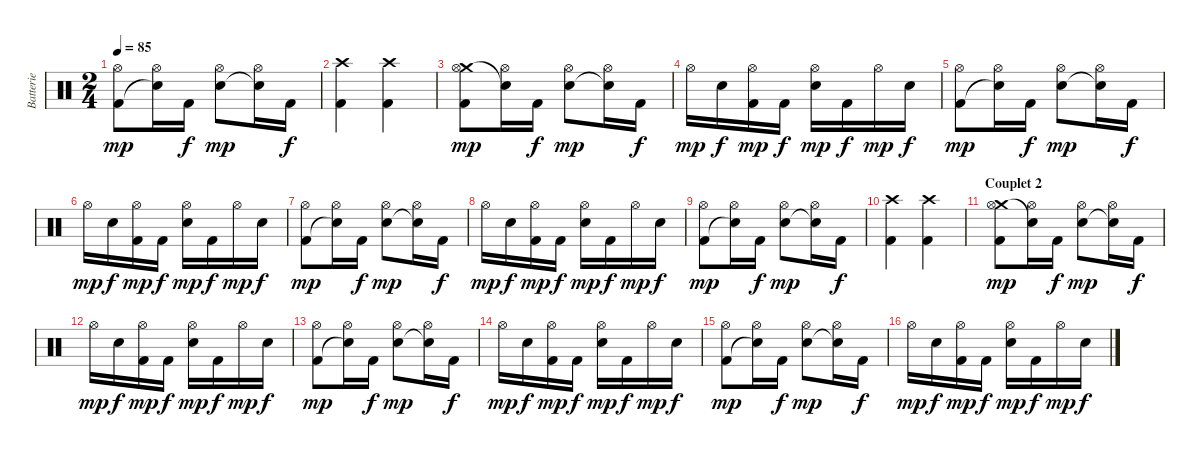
\track ("Batterie" "Batterie") {instrument percussion}
\staff {score}
\articulation defaults
\ts (2 4)
\tempo 85
\clef neutral
\ks c
("Hi-Hat (open)" "Kick (hit) 2").8{dy mp} ("Hi-Hat (open)" "Snare (hit)"{t}).16 "Kick (hit) 2".16{dy f} ("Electric Snare (hit)" "Hi-Hat (open)").8{dy mp} ("Snare (hit)"{t} "Hi-Hat (open)").16 "Kick (hit) 2".16{dy f} |
("Crash high (hit)" "Kick (hit) 2").4 ("Crash high (hit)" "Kick (hit) 2").4 |
("Crash medium (hit)" "Hi-Hat (open)" "Kick (hit) 2").8{dy mp} ("Hi-Hat (open)" "Snare (hit)"{t}).16 "Kick (hit) 2".16{dy f} ("Electric Snare (hit)" "Hi-Hat (open)").8{dy mp} ("Snare (hit)"{t} "Hi-Hat (open)").16 "Kick (hit) 2".16{dy f} |
"Hi-Hat (open)".16{dy mp} "Electric Snare (hit)".16{dy f} ("Hi-Hat (open)" "Kick (hit) 2").16{dy mp} "Kick (hit) 2".16{dy f} ("Electric Snare (hit)" "Hi-Hat (open)").16{dy mp} "Kick (hit) 2".16{dy f} "Hi-Hat (open)".16{dy mp} "Electric Snare (hit)".16{dy f} |
("Hi-Hat (open)" "Kick (hit) 2").8{dy mp} ("Hi-Hat (open)" "Snare (hit)"{t}).16 "Kick (hit) 2".16{dy f} ("Electric Snare (hit)" "Hi-Hat (open)").8{dy mp} ("Snare (hit)"{t} "Hi-Hat (open)").16 "Kick (hit) 2".16{dy f} |
"Hi-Hat (open)".16{dy mp} "Electric Snare (hit)".16{dy f} ("Hi-Hat (open)" "Kick (hit) 2").16{dy mp} "Kick (hit) 2".16{dy f} ("Electric Snare (hit)" "Hi-Hat (open)").16{dy mp} "Kick (hit) 2".16{dy f} "Hi-Hat (open)".16{dy mp} "Electric Snare (hit)".16{dy f} |
("Hi-Hat (open)" "Kick (hit) 2").8{dy mp} ("Hi-Hat (open)" "Snare (hit)"{t}).16 "Kick (hit) 2".16{dy f} ("Electric Snare (hit)" "Hi-Hat (open)").8{dy mp} ("Snare (hit)"{t} "Hi-Hat (open)").16 "Kick (hit) 2".16{dy f} |
"Hi-Hat (open)".16{dy mp} "Electric Snare (hit)".16{dy f} ("Hi-Hat (open)" "Kick (hit) 2").16{dy mp} "Kick (hit) 2".16{dy f} ("Electric Snare (hit)" "Hi-Hat (open)").16{dy mp} "Kick (hit) 2".16{dy f} "Hi-Hat (open)".16{dy mp} "Electric Snare (hit)".16{dy f} |
("Hi-Hat (open)" "Kick (hit) 2").8{dy mp} ("Hi-Hat (open)" "Snare (hit)"{t}).16 "Kick (hit) 2".16{dy f} ("Electric Snare (hit)" "Hi-Hat (open)").8{dy mp} ("Snare (hit)"{t} "Hi-Hat (open)").16 "Kick (hit) 2".16{dy f} |
("Crash high (hit)" "Kick (hit) 2").4 ("Crash high (hit)" "Kick (hit) 2").4 |
\section ("" "Couplet 2")
("Crash medium (hit)" "Hi-Hat (open)" "Kick (hit) 2").8{dy mp} ("Hi-Hat (open)" "Snare (hit)"{t}).16 "Kick (hit) 2".16{dy f} ("Electric Snare (hit)" "Hi-Hat (open)").8{dy mp} ("Snare (hit)"{t} "Hi-Hat (open)").16 "Kick (hit) 2".16{dy f} |
"Hi-Hat (open)".16{dy mp} "Electric Snare (hit)".16{dy f} ("Hi-Hat (open)" "Kick (hit) 2").16{dy mp} "Kick (hit) 2".16{dy f} ("Electric Snare (hit)" "Hi-Hat (open)").16{dy mp} "Kick (hit) 2".16{dy f} "Hi-Hat (open)".16{dy mp} "Electric Snare (hit)".16{dy f} |
("Hi-Hat (open)" "Kick (hit) 2").8{dy mp} ("Hi-Hat (open)" "Snare (hit)"{t}).16 "Kick (hit) 2".16{dy f} ("Electric Snare (hit)" "Hi-Hat (open)").8{dy mp} ("Snare (hit)"{t} "Hi-Hat (open)").16 "Kick (hit) 2".16{dy f} |
"Hi-Hat (open)".16{dy mp} "Electric Snare (hit)".16{dy f} ("Hi-Hat (open)" "Kick (hit) 2").16{dy mp} "Kick (hit) 2".16{dy f} ("Electric Snare (hit)" "Hi-Hat (open)").16{dy mp} "Kick (hit) 2".16{dy f} "Hi-Hat (open)".16{dy mp} "Electric Snare (hit)".16{dy f} |
("Hi-Hat (open)" "Kick (hit) 2").8{dy mp} ("Hi-Hat (open)" "Snare (hit)"{t}).16 "Kick (hit) 2".16{dy f} ("Electric Snare (hit)" "Hi-Hat (open)").8{dy mp} ("Snare (hit)"{t} "Hi-Hat (open)").16 "Kick (hit) 2".16{dy f} |
"Hi-Hat (open)".16{dy mp} "Electric Snare (hit)".16{dy f} ("Hi-Hat (open)" "Kick (hit) 2").16{dy mp} "Kick (hit) 2".16{dy f} ("Electric Snare (hit)" "Hi-Hat (open)").16{dy mp} "Kick (hit) 2".16{dy f} "Hi-Hat (open)".16{dy mp} "Electric Snare (hit)".16{dy f}
